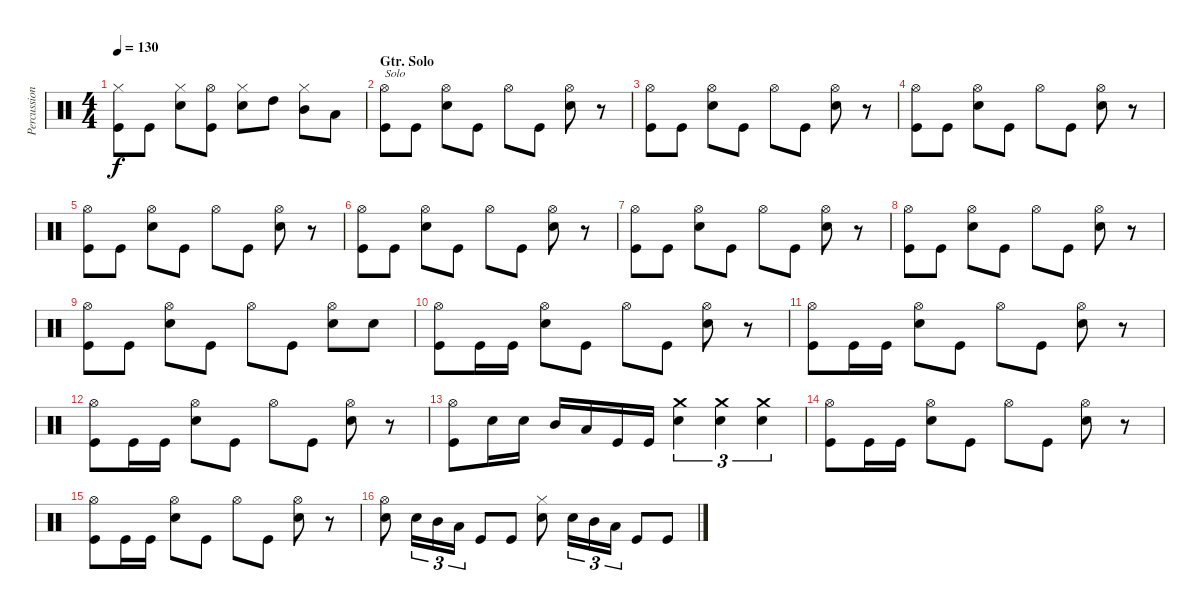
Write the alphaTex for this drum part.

\track ("Percussion" "Percussion") {instrument percussion}
\staff {score}
\articulation defaults
\ts (4 4)
\tempo 130
\clef neutral
\ks c
("Hi-Hat (closed)" "Kick (hit)").8{dy f} "Kick (hit)".8 ("Hi-Hat (closed)" "Snare (hit) 2").8 ("Hi-Hat (open)" "Kick (hit)").8 ("Hi-Hat (closed)" "Snare (hit) 2").8 "High Tom (hit)".8 ("Hi-Hat (closed)" "Mid Tom (hit)").8 "Low Tom (hit)".8 |
\section ("" "Gtr. Solo")
("Hi-Hat (open)" "Kick (hit)").8{txt "Solo"} "Kick (hit)".8 ("Hi-Hat (open)" "Snare (hit) 2").8 "Kick (hit)".8 "Hi-Hat (open)".8 "Kick (hit)".8 ("Hi-Hat (open)" "Snare (hit) 2").8 r.8 |
("Hi-Hat (open)" "Kick (hit)").8 "Kick (hit)".8 ("Hi-Hat (open)" "Snare (hit) 2").8 "Kick (hit)".8 "Hi-Hat (open)".8 "Kick (hit)".8 ("Hi-Hat (open)" "Snare (hit) 2").8 r.8 |
("Hi-Hat (open)" "Kick (hit)").8 "Kick (hit)".8 ("Hi-Hat (open)" "Snare (hit) 2").8 "Kick (hit)".8 "Hi-Hat (open)".8 "Kick (hit)".8 ("Hi-Hat (open)" "Snare (hit) 2").8 r.8 |
("Hi-Hat (open)" "Kick (hit)").8 "Kick (hit)".8 ("Hi-Hat (open)" "Snare (hit) 2").8 "Kick (hit)".8 "Hi-Hat (open)".8 "Kick (hit)".8 ("Hi-Hat (open)" "Snare (hit) 2").8 r.8 |
("Hi-Hat (open)" "Kick (hit)").8 "Kick (hit)".8 ("Hi-Hat (open)" "Snare (hit) 2").8 "Kick (hit)".8 "Hi-Hat (open)".8 "Kick (hit)".8 ("Hi-Hat (open)" "Snare (hit) 2").8 r.8 |
("Hi-Hat (open)" "Kick (hit)").8 "Kick (hit)".8 ("Hi-Hat (open)" "Snare (hit) 2").8 "Kick (hit)".8 "Hi-Hat (open)".8 "Kick (hit)".8 ("Hi-Hat (open)" "Snare (hit) 2").8 r.8 |
("Hi-Hat (open)" "Kick (hit)").8 "Kick (hit)".8 ("Hi-Hat (open)" "Snare (hit) 2").8 "Kick (hit)".8 "Hi-Hat (open)".8 "Kick (hit)".8 ("Hi-Hat (open)" "Snare (hit) 2").8 r.8 |
("Hi-Hat (open)" "Kick (hit)").8 "Kick (hit)".8 ("Hi-Hat (open)" "Snare (hit) 2").8 "Kick (hit)".8 "Hi-Hat (open)".8 "Kick (hit)".8 ("Hi-Hat (open)" "Snare (hit) 2").8 "Snare (hit) 2".8 |
("Hi-Hat (open)" "Kick (hit)").8 "Kick (hit)".16 "Kick (hit)".16 ("Hi-Hat (open)" "Snare (hit) 2").8 "Kick (hit)".8 "Hi-Hat (open)".8 "Kick (hit)".8 ("Hi-Hat (open)" "Snare (hit) 2").8 r.8 |
("Hi-Hat (open)" "Kick (hit)").8 "Kick (hit)".16 "Kick (hit)".16 ("Hi-Hat (open)" "Snare (hit) 2").8 "Kick (hit)".8 "Hi-Hat (open)".8 "Kick (hit)".8 ("Hi-Hat (open)" "Snare (hit) 2").8 r.8 |
("Hi-Hat (open)" "Kick (hit)").8 "Kick (hit)".16 "Kick (hit)".16 ("Hi-Hat (open)" "Snare (hit) 2").8 "Kick (hit)".8 "Hi-Hat (open)".8 "Kick (hit)".8 ("Hi-Hat (open)" "Snare (hit) 2").8 r.8 |
("Hi-Hat (open)" "Kick (hit)").8 "Snare (hit) 2".16 "Snare (hit) 2".16 "Mid Tom (hit)".16 "Low Tom (hit)".16 "Kick (hit)".16 "Kick (hit)".16 ("Crash medium (hit)" "Snare (hit) 2").4{tu (3 2)} ("Crash medium (hit)" "Snare (hit) 2").4{tu (3 2)} ("Crash medium (hit)" "Snare (hit) 2").4{tu (3 2)} |
("Hi-Hat (open)" "Kick (hit)").8 "Kick (hit)".16 "Kick (hit)".16 ("Hi-Hat (open)" "Snare (hit) 2").8 "Kick (hit)".8 "Hi-Hat (open)".8 "Kick (hit)".8 ("Hi-Hat (open)" "Snare (hit) 2").8 r.8 |
("Hi-Hat (open)" "Kick (hit)").8 "Kick (hit)".16 "Kick (hit)".16 ("Hi-Hat (open)" "Snare (hit) 2").8 "Kick (hit)".8 "Hi-Hat (open)".8 "Kick (hit)".8 ("Hi-Hat (open)" "Snare (hit) 2").8 r.8 |
("Hi-Hat (open)" "Snare (hit) 2").8 "Snare (hit) 2".16{tu (3 2)} "Mid Tom (hit)".16{tu (3 2)} "Low Tom (hit)".16{tu (3 2)} "Kick (hit)".8 "Kick (hit)".8 ("Hi-Hat (closed)" "Snare (hit) 2").8 "Snare (hit) 2".16{tu (3 2)} "Mid Tom (hit)".16{tu (3 2)} "Low Tom (hit)".16{tu (3 2)} "Kick (hit)".8 "Kick (hit)".8
